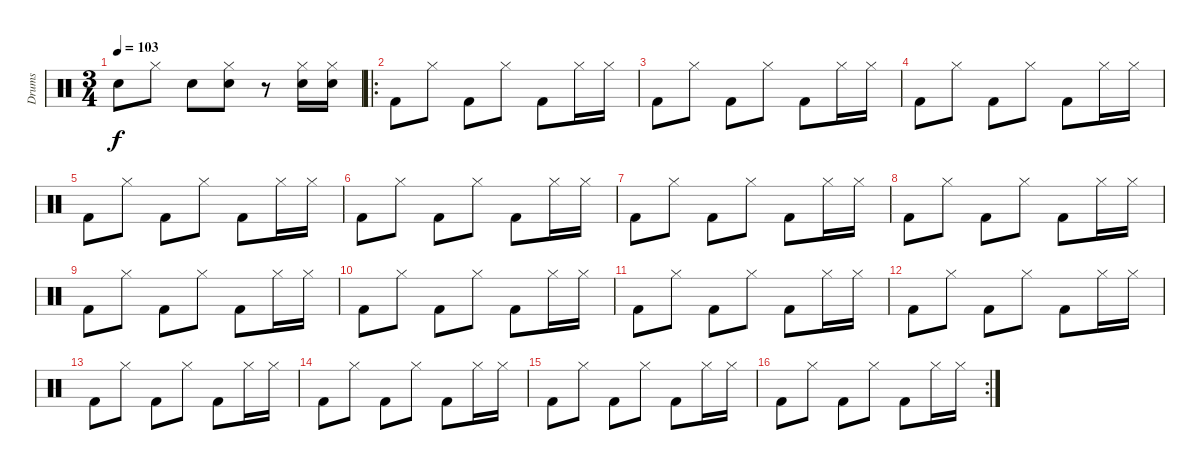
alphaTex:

\track ("Drums" "Drums") {instrument percussion}
\staff {score}
\articulation defaults
\ts (3 4)
\tempo 103
\clef neutral
\ks c "Snare (hit) 2".8{dy f} "Hi-Hat (closed)".8 "Snare (hit) 2".8
("Hi-Hat (closed)" "Snare (hit) 2").8 r.8 ("Hi-Hat (closed)" "Snare (hit) 2").16 ("Hi-Hat (closed)" "Snare (hit) 2").16 |
\ro "Kick (hit) 2".8 "Hi-Hat (closed)".8 "Kick (hit) 2".8 "Hi-Hat (closed)".8 "Kick (hit) 2".8 "Hi-Hat (closed)".16 "Hi-Hat (closed)".16
|
"Kick (hit) 2".8 "Hi-Hat (closed)".8 "Kick (hit) 2".8 "Hi-Hat (closed)".8 "Kick (hit) 2".8 "Hi-Hat (closed)".16 "Hi-Hat (closed)".16 |
"Kick (hit) 2".8 "Hi-Hat (closed)".8 "Kick (hit) 2".8 "Hi-Hat (closed)".8 "Kick (hit) 2".8 "Hi-Hat (closed)".16 "Hi-Hat (closed)".16 |
"Kick (hit) 2".8 "Hi-Hat (closed)".8 "Kick (hit) 2".8 "Hi-Hat (closed)".8 "Kick (hit) 2".8 "Hi-Hat (closed)".16 "Hi-Hat (closed)".16 |
"Kick (hit) 2".8 "Hi-Hat (closed)".8 "Kick (hit) 2".8 "Hi-Hat (closed)".8 "Kick (hit) 2".8 "Hi-Hat (closed)".16 "Hi-Hat (closed)".16 |
"Kick (hit) 2".8 "Hi-Hat (closed)".8 "Kick (hit) 2".8 "Hi-Hat (closed)".8 "Kick (hit) 2".8 "Hi-Hat (closed)".16 "Hi-Hat (closed)".16 |
"Kick (hit) 2".8 "Hi-Hat (closed)".8 "Kick (hit) 2".8 "Hi-Hat (closed)".8 "Kick (hit) 2".8 "Hi-Hat (closed)".16 "Hi-Hat (closed)".16 |
"Kick (hit) 2".8 "Hi-Hat (closed)".8 "Kick (hit) 2".8 "Hi-Hat (closed)".8 "Kick (hit) 2".8 "Hi-Hat (closed)".16 "Hi-Hat (closed)".16 |
"Kick (hit) 2".8 "Hi-Hat (closed)".8 "Kick (hit) 2".8 "Hi-Hat (closed)".8 "Kick (hit) 2".8 "Hi-Hat (closed)".16 "Hi-Hat (closed)".16 |
"Kick (hit) 2".8 "Hi-Hat (closed)".8 "Kick (hit) 2".8 "Hi-Hat (closed)".8 "Kick (hit) 2".8 "Hi-Hat (closed)".16 "Hi-Hat (closed)".16 |
"Kick (hit) 2".8 "Hi-Hat (closed)".8 "Kick (hit) 2".8 "Hi-Hat (closed)".8 "Kick (hit) 2".8 "Hi-Hat (closed)".16 "Hi-Hat (closed)".16 |
"Kick (hit) 2".8 "Hi-Hat (closed)".8 "Kick (hit) 2".8 "Hi-Hat (closed)".8 "Kick (hit) 2".8 "Hi-Hat (closed)".16 "Hi-Hat (closed)".16 |
"Kick (hit) 2".8 "Hi-Hat (closed)".8 "Kick (hit) 2".8 "Hi-Hat (closed)".8 "Kick (hit) 2".8 "Hi-Hat (closed)".16 "Hi-Hat (closed)".16 |
"Kick (hit) 2".8 "Hi-Hat (closed)".8 "Kick (hit) 2".8 "Hi-Hat (closed)".8 "Kick (hit) 2".8 "Hi-Hat (closed)".16 "Hi-Hat (closed)".16 |
\rc 2 "Kick (hit) 2".8 "Hi-Hat (closed)".8 "Kick (hit) 2".8 "Hi-Hat (closed)".8 "Kick (hit) 2".8 "Hi-Hat (closed)".16 "Hi-Hat (closed)".16
